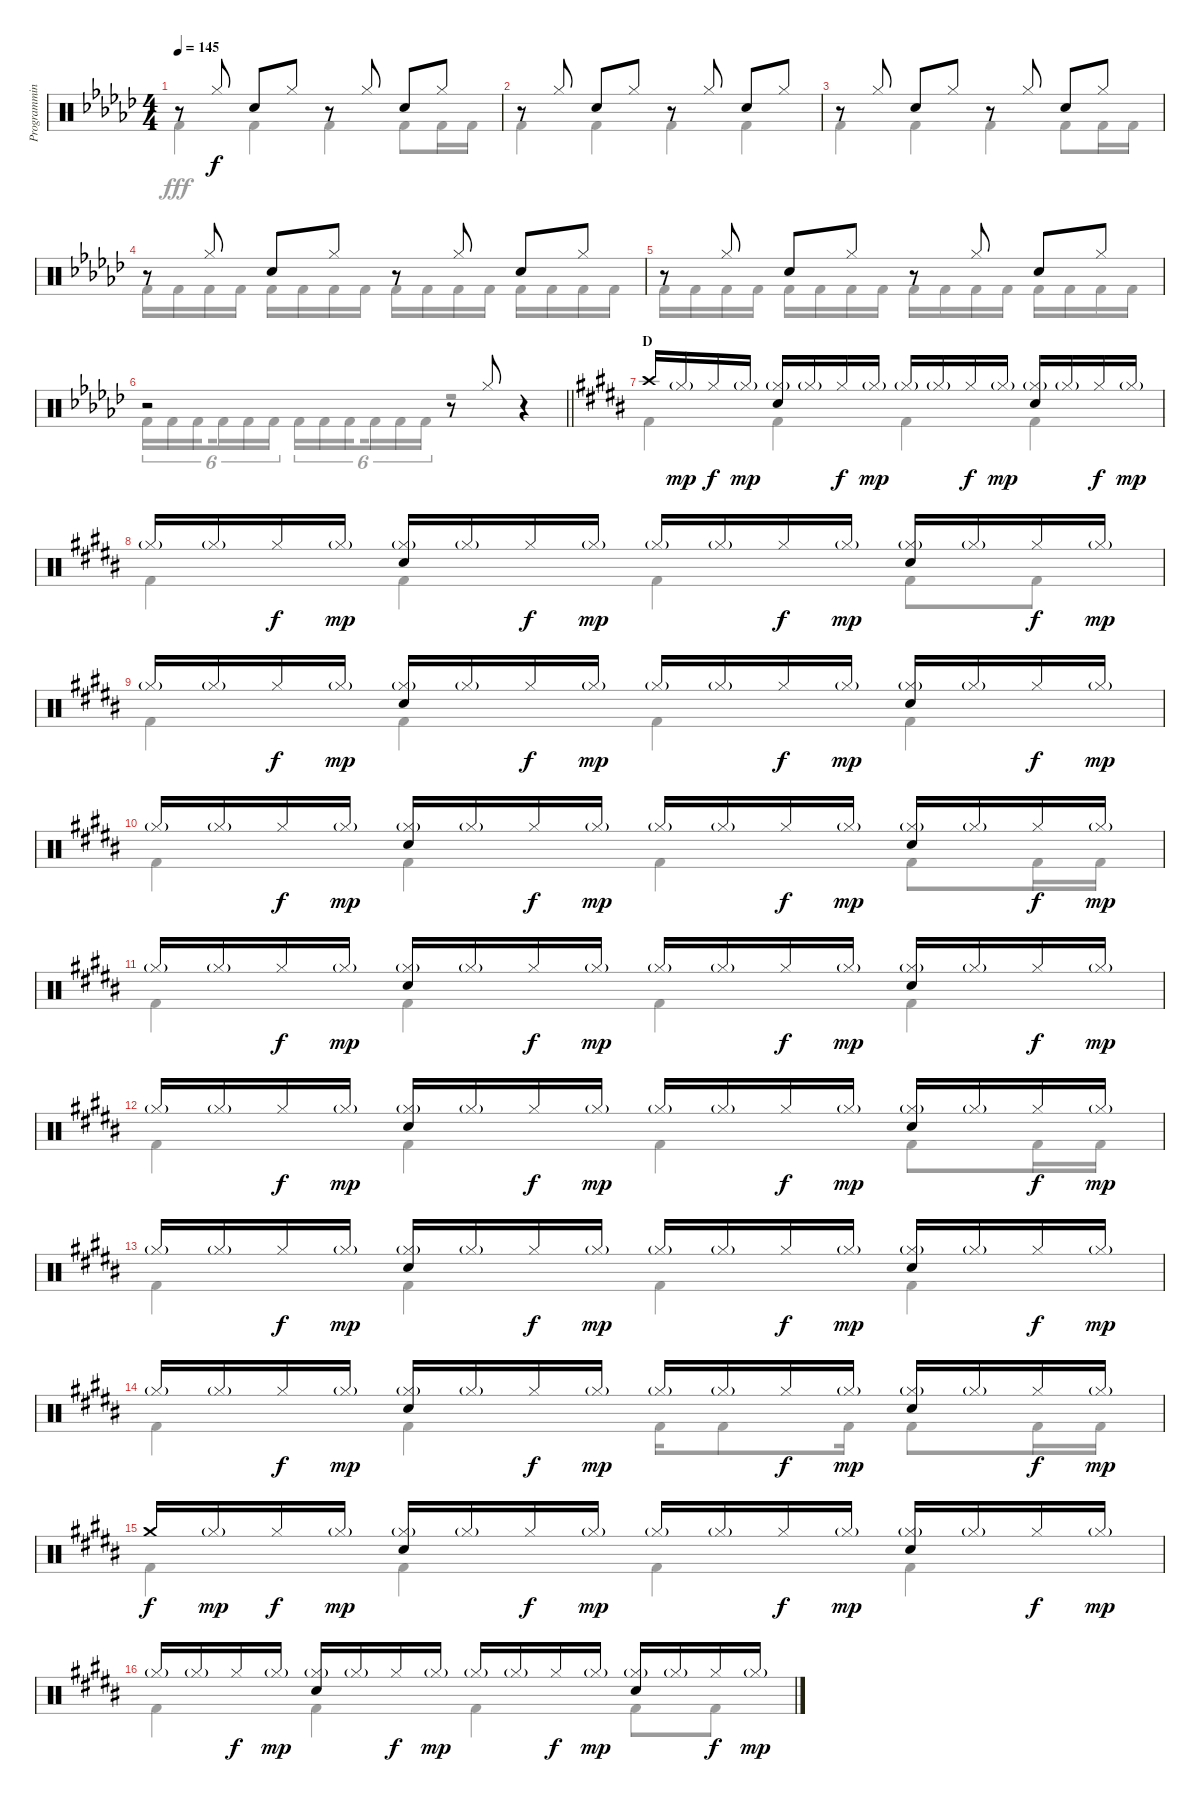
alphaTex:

\track ("Programming Drums I" "Programmin") {instrument percussion}
\staff {score}
\articulation defaults
\voice
\ts (4 4)
\tempo 145
\clef neutral
\ks gb
r.8{dy f} "Hi-Hat (closed)".8 "Snare (hit) 2".8 "Hi-Hat (closed)".8 r.8 "Hi-Hat (closed)".8 "Snare (hit) 2".8 "Hi-Hat (closed)".8 |
r.8 "Hi-Hat (closed)".8 "Snare (hit) 2".8 "Hi-Hat (closed)".8 r.8 "Hi-Hat (closed)".8 "Snare (hit) 2".8 "Hi-Hat (closed)".8 |
r.8 "Hi-Hat (closed)".8 "Snare (hit) 2".8 "Hi-Hat (closed)".8 r.8 "Hi-Hat (closed)".8 "Snare (hit) 2".8 "Hi-Hat (closed)".8 |
r.8 "Hi-Hat (closed)".8 "Snare (hit) 2".8 "Hi-Hat (closed)".8 r.8 "Hi-Hat (closed)".8 "Snare (hit) 2".8 "Hi-Hat (closed)".8 |
r.8 "Hi-Hat (closed)".8 "Snare (hit) 2".8 "Hi-Hat (closed)".8 r.8 "Hi-Hat (closed)".8 "Snare (hit) 2".8 "Hi-Hat (closed)".8 |
\barLineRight lightlight
r.2 r.8 "Hi-Hat (closed)".8 r.4 |
\section ("" "D")
\ks b "Crash high (hit)".16 "Hi-Hat (closed)"{g}.16{dy mp} "Hi-Hat (closed)".16{dy f} "Hi-Hat (closed)"{g}.16{dy mp}
("Hi-Hat (closed)"{g} "Snare (hit) 2").16 "Hi-Hat (closed)"{g}.16 "Hi-Hat (closed)".16{dy f} "Hi-Hat (closed)"{g}.16{dy mp} "Hi-Hat (closed)"{g}.16 "Hi-Hat (closed)"{g}.16 "Hi-Hat (closed)".16{dy f} "Hi-Hat (closed)"{g}.16{dy mp} ("Hi-Hat (closed)"{g} "Snare (hit) 2").16 "Hi-Hat (closed)"{g}.16 "Hi-Hat (closed)".16{dy f} "Hi-Hat (closed)"{g}.16{dy mp} |
"Hi-Hat (closed)"{g}.16 "Hi-Hat (closed)"{g}.16 "Hi-Hat (closed)".16{dy f} "Hi-Hat (closed)"{g}.16{dy mp} ("Hi-Hat (closed)"{g} "Snare (hit) 2").16 "Hi-Hat (closed)"{g}.16 "Hi-Hat (closed)".16{dy f} "Hi-Hat (closed)"{g}.16{dy mp} "Hi-Hat (closed)"{g}.16 "Hi-Hat (closed)"{g}.16 "Hi-Hat (closed)".16{dy f} "Hi-Hat (closed)"{g}.16{dy mp} ("Hi-Hat (closed)"{g} "Snare (hit) 2").16 "Hi-Hat (closed)"{g}.16 "Hi-Hat (closed)".16{dy f} "Hi-Hat (closed)"{g}.16{dy mp} |
"Hi-Hat (closed)"{g}.16 "Hi-Hat (closed)"{g}.16 "Hi-Hat (closed)".16{dy f} "Hi-Hat (closed)"{g}.16{dy mp} ("Hi-Hat (closed)"{g} "Snare (hit) 2").16 "Hi-Hat (closed)"{g}.16 "Hi-Hat (closed)".16{dy f} "Hi-Hat (closed)"{g}.16{dy mp} "Hi-Hat (closed)"{g}.16 "Hi-Hat (closed)"{g}.16 "Hi-Hat (closed)".16{dy f} "Hi-Hat (closed)"{g}.16{dy mp} ("Hi-Hat (closed)"{g} "Snare (hit) 2").16 "Hi-Hat (closed)"{g}.16 "Hi-Hat (closed)".16{dy f} "Hi-Hat (closed)"{g}.16{dy mp} |
"Hi-Hat (closed)"{g}.16 "Hi-Hat (closed)"{g}.16 "Hi-Hat (closed)".16{dy f} "Hi-Hat (closed)"{g}.16{dy mp} ("Hi-Hat (closed)"{g} "Snare (hit) 2").16 "Hi-Hat (closed)"{g}.16 "Hi-Hat (closed)".16{dy f} "Hi-Hat (closed)"{g}.16{dy mp} "Hi-Hat (closed)"{g}.16 "Hi-Hat (closed)"{g}.16 "Hi-Hat (closed)".16{dy f} "Hi-Hat (closed)"{g}.16{dy mp} ("Hi-Hat (closed)"{g} "Snare (hit) 2").16 "Hi-Hat (closed)"{g}.16 "Hi-Hat (closed)".16{dy f} "Hi-Hat (closed)"{g}.16{dy mp} |
"Hi-Hat (closed)"{g}.16 "Hi-Hat (closed)"{g}.16 "Hi-Hat (closed)".16{dy f} "Hi-Hat (closed)"{g}.16{dy mp} ("Hi-Hat (closed)"{g} "Snare (hit) 2").16 "Hi-Hat (closed)"{g}.16 "Hi-Hat (closed)".16{dy f} "Hi-Hat (closed)"{g}.16{dy mp} "Hi-Hat (closed)"{g}.16 "Hi-Hat (closed)"{g}.16 "Hi-Hat (closed)".16{dy f} "Hi-Hat (closed)"{g}.16{dy mp} ("Hi-Hat (closed)"{g} "Snare (hit) 2").16 "Hi-Hat (closed)"{g}.16 "Hi-Hat (closed)".16{dy f} "Hi-Hat (closed)"{g}.16{dy mp} |
"Hi-Hat (closed)"{g}.16 "Hi-Hat (closed)"{g}.16 "Hi-Hat (closed)".16{dy f} "Hi-Hat (closed)"{g}.16{dy mp} ("Hi-Hat (closed)"{g} "Snare (hit) 2").16 "Hi-Hat (closed)"{g}.16 "Hi-Hat (closed)".16{dy f} "Hi-Hat (closed)"{g}.16{dy mp} "Hi-Hat (closed)"{g}.16 "Hi-Hat (closed)"{g}.16 "Hi-Hat (closed)".16{dy f} "Hi-Hat (closed)"{g}.16{dy mp} ("Hi-Hat (closed)"{g} "Snare (hit) 2").16 "Hi-Hat (closed)"{g}.16 "Hi-Hat (closed)".16{dy f} "Hi-Hat (closed)"{g}.16{dy mp} |
"Hi-Hat (closed)"{g}.16 "Hi-Hat (closed)"{g}.16 "Hi-Hat (closed)".16{dy f} "Hi-Hat (closed)"{g}.16{dy mp} ("Hi-Hat (closed)"{g} "Snare (hit) 2").16 "Hi-Hat (closed)"{g}.16 "Hi-Hat (closed)".16{dy f} "Hi-Hat (closed)"{g}.16{dy mp} "Hi-Hat (closed)"{g}.16 "Hi-Hat (closed)"{g}.16 "Hi-Hat (closed)".16{dy f} "Hi-Hat (closed)"{g}.16{dy mp} ("Hi-Hat (closed)"{g} "Snare (hit) 2").16 "Hi-Hat (closed)"{g}.16 "Hi-Hat (closed)".16{dy f} "Hi-Hat (closed)"{g}.16{dy mp} |
"Hi-Hat (closed)"{g}.16 "Hi-Hat (closed)"{g}.16 "Hi-Hat (closed)".16{dy f} "Hi-Hat (closed)"{g}.16{dy mp} ("Hi-Hat (closed)"{g} "Snare (hit) 2").16 "Hi-Hat (closed)"{g}.16 "Hi-Hat (closed)".16{dy f} "Hi-Hat (closed)"{g}.16{dy mp} "Hi-Hat (closed)"{g}.16 "Hi-Hat (closed)"{g}.16 "Hi-Hat (closed)".16{dy f} "Hi-Hat (closed)"{g}.16{dy mp} ("Hi-Hat (closed)"{g} "Snare (hit) 2").16 "Hi-Hat (closed)"{g}.16 "Hi-Hat (closed)".16{dy f} "Hi-Hat (closed)"{g}.16{dy mp} |
"Crash medium (hit)".16{dy f} "Hi-Hat (closed)"{g}.16{dy mp} "Hi-Hat (closed)".16{dy f} "Hi-Hat (closed)"{g}.16{dy mp} ("Hi-Hat (closed)"{g} "Snare (hit) 2").16 "Hi-Hat (closed)"{g}.16 "Hi-Hat (closed)".16{dy f} "Hi-Hat (closed)"{g}.16{dy mp} "Hi-Hat (closed)"{g}.16 "Hi-Hat (closed)"{g}.16 "Hi-Hat (closed)".16{dy f} "Hi-Hat (closed)"{g}.16{dy mp} ("Hi-Hat (closed)"{g} "Snare (hit) 2").16 "Hi-Hat (closed)"{g}.16 "Hi-Hat (closed)".16{dy f} "Hi-Hat (closed)"{g}.16{dy mp} |
"Hi-Hat (closed)"{g}.16 "Hi-Hat (closed)"{g}.16 "Hi-Hat (closed)".16{dy f} "Hi-Hat (closed)"{g}.16{dy mp} ("Hi-Hat (closed)"{g} "Snare (hit) 2").16 "Hi-Hat (closed)"{g}.16 "Hi-Hat (closed)".16{dy f} "Hi-Hat (closed)"{g}.16{dy mp} "Hi-Hat (closed)"{g}.16 "Hi-Hat (closed)"{g}.16 "Hi-Hat (closed)".16{dy f} "Hi-Hat (closed)"{g}.16{dy mp} ("Hi-Hat (closed)"{g} "Snare (hit) 2").16 "Hi-Hat (closed)"{g}.16 "Hi-Hat (closed)".16{dy f} "Hi-Hat (closed)"{g}.16{dy mp}
\voice
\clef neutral
\ottava regular
\simile none
\ks gb "Kick (hit) 2".4{dy fff} "Kick (hit) 2".4 "Kick (hit) 2".4 "Kick (hit) 2".8 "Kick (hit) 2".16 "Kick (hit) 2".16
|
"Kick (hit) 2".4 "Kick (hit) 2".4 "Kick (hit) 2".4 "Kick (hit) 2".4 |
"Kick (hit) 2".4 "Kick (hit) 2".4 "Kick (hit) 2".4 "Kick (hit) 2".8 "Kick (hit) 2".16 "Kick (hit) 2".16 |
"Kick (hit) 2".16 "Kick (hit) 2".16 "Kick (hit) 2".16 "Kick (hit) 2".16 "Kick (hit) 2".16 "Kick (hit) 2".16 "Kick (hit) 2".16 "Kick (hit) 2".16 "Kick (hit) 2".16 "Kick (hit) 2".16 "Kick (hit) 2".16 "Kick (hit) 2".16 "Kick (hit) 2".16 "Kick (hit) 2".16 "Kick (hit) 2".16 "Kick (hit) 2".16 |
"Kick (hit) 2".16 "Kick (hit) 2".16 "Kick (hit) 2".16 "Kick (hit) 2".16 "Kick (hit) 2".16 "Kick (hit) 2".16 "Kick (hit) 2".16 "Kick (hit) 2".16 "Kick (hit) 2".16 "Kick (hit) 2".16 "Kick (hit) 2".16 "Kick (hit) 2".16 "Kick (hit) 2".16 "Kick (hit) 2".16 "Kick (hit) 2".16 "Kick (hit) 2".16 |
\barLineRight lightlight "Kick (hit) 2".16{tu (6 4)} "Kick (hit) 2".16{tu (6 4)} "Kick (hit) 2".16{tu (6 4) beam splitsecondary} "Kick (hit) 2".16{tu (6 4)} "Kick (hit) 2".16{tu (6 4)} "Kick (hit) 2".16{tu (6 4)} "Kick (hit) 2".16{tu (6 4)} "Kick (hit) 2".16{tu (6 4)} "Kick (hit) 2".16{tu (6 4) beam splitsecondary} "Kick (hit) 2".16{tu (6 4)} "Kick (hit) 2".16{tu (6 4)} "Kick (hit) 2".16{tu (6 4)}
r.2 |
\ks b "Kick (hit) 2".4 "Kick (hit) 2".4 "Kick (hit) 2".4 "Kick (hit) 2".4
|
"Kick (hit) 2".4 "Kick (hit) 2".4 "Kick (hit) 2".4 "Kick (hit) 2".8 "Kick (hit) 2".8 |
"Kick (hit) 2".4 "Kick (hit) 2".4 "Kick (hit) 2".4 "Kick (hit) 2".4 |
"Kick (hit) 2".4 "Kick (hit) 2".4 "Kick (hit) 2".4 "Kick (hit) 2".8 "Kick (hit) 2".16 "Kick (hit) 2".16 |
"Kick (hit) 2".4 "Kick (hit) 2".4 "Kick (hit) 2".4 "Kick (hit) 2".4 |
"Kick (hit) 2".4 "Kick (hit) 2".4 "Kick (hit) 2".4 "Kick (hit) 2".8 "Kick (hit) 2".16 "Kick (hit) 2".16 |
"Kick (hit) 2".4 "Kick (hit) 2".4 "Kick (hit) 2".4 "Kick (hit) 2".4 |
"Kick (hit) 2".4 "Kick (hit) 2".4 "Kick (hit) 2".16 "Kick (hit) 2".8 "Kick (hit) 2".16 "Kick (hit) 2".8 "Kick (hit) 2".16 "Kick (hit) 2".16 |
"Kick (hit) 2".4 "Kick (hit) 2".4 "Kick (hit) 2".4 "Kick (hit) 2".4 |
"Kick (hit) 2".4 "Kick (hit) 2".4 "Kick (hit) 2".4 "Kick (hit) 2".8 "Kick (hit) 2".8
